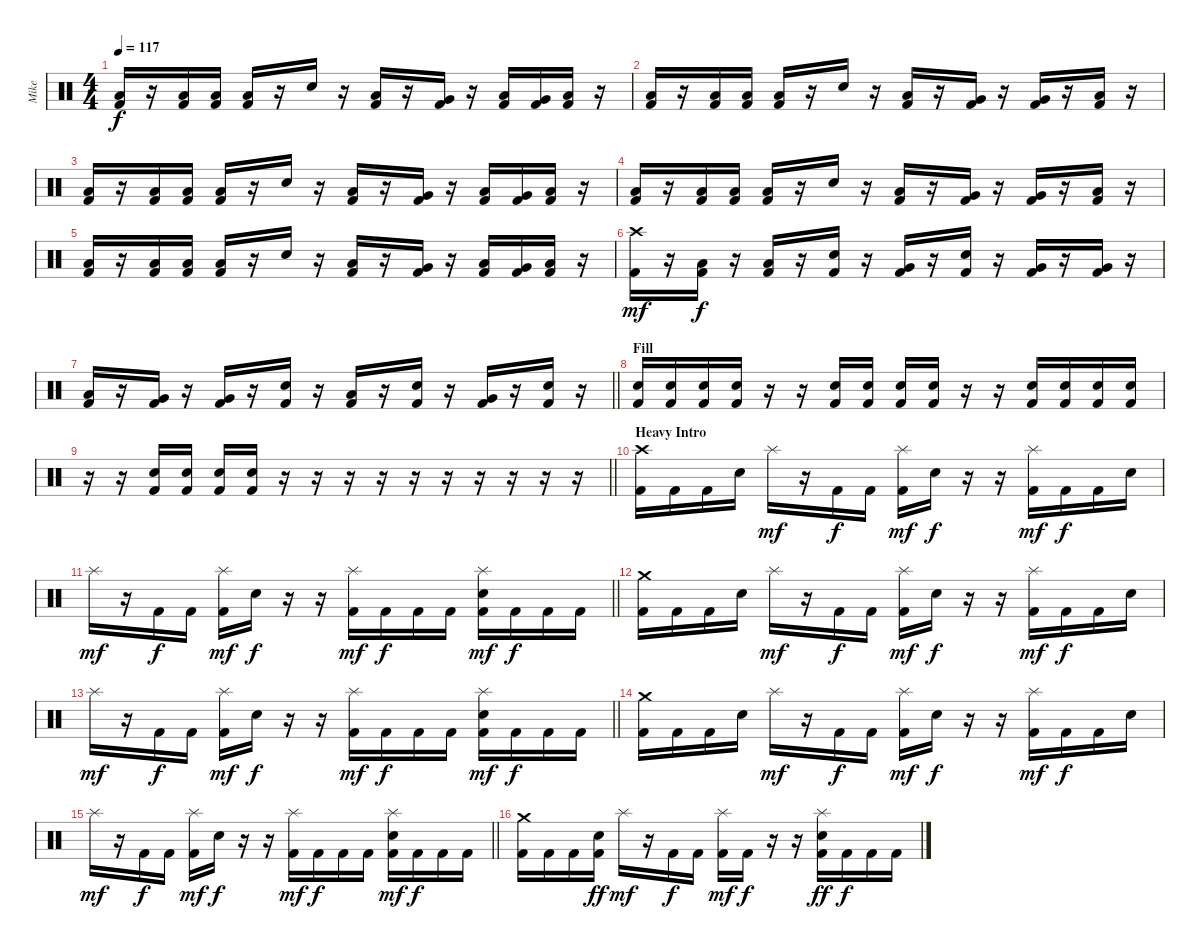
\track ("Mike" "Mike") {instrument percussion}
\staff {score}
\articulation defaults
\ts (4 4)
\tempo 117
\clef neutral
\ks c
("Low Tom (hit)" "Kick (hit) 2").16{dy f} r.16 ("Low Tom (hit)" "Kick (hit) 2").16 ("Low Tom (hit)" "Kick (hit) 2").16 ("Low Tom (hit)" "Kick (hit) 2").16 r.16 "Snare (hit) 2".16 r.16 ("Low Tom (hit)" "Kick (hit) 2").16 r.16 ("Very Low Tom (hit)" "Kick (hit) 2").16 r.16 ("Low Tom (hit)" "Kick (hit) 2").16 ("Very Low Tom (hit)" "Kick (hit) 2").16 ("Low Floor Tom (hit)" "Kick (hit) 2").16 r.16 |
("Low Tom (hit)" "Kick (hit) 2").16 r.16 ("Low Tom (hit)" "Kick (hit) 2").16 ("Low Tom (hit)" "Kick (hit) 2").16 ("Low Tom (hit)" "Kick (hit) 2").16 r.16 "Snare (hit) 2".16 r.16 ("Low Tom (hit)" "Kick (hit) 2").16 r.16 ("Very Low Tom (hit)" "Kick (hit) 2").16 r.16 ("Very Low Tom (hit)" "Kick (hit) 2").16 r.16 ("Low Tom (hit)" "Kick (hit) 2").16 r.16 |
("Low Tom (hit)" "Kick (hit) 2").16 r.16 ("Low Tom (hit)" "Kick (hit) 2").16 ("Low Tom (hit)" "Kick (hit) 2").16 ("Low Tom (hit)" "Kick (hit) 2").16 r.16 "Snare (hit) 2".16 r.16 ("Low Tom (hit)" "Kick (hit) 2").16 r.16 ("Very Low Tom (hit)" "Kick (hit) 2").16 r.16 ("Low Tom (hit)" "Kick (hit) 2").16 ("Very Low Tom (hit)" "Kick (hit) 2").16 ("Low Floor Tom (hit)" "Kick (hit) 2").16 r.16 |
("Low Tom (hit)" "Kick (hit) 2").16 r.16 ("Low Tom (hit)" "Kick (hit) 2").16 ("Low Tom (hit)" "Kick (hit) 2").16 ("Low Tom (hit)" "Kick (hit) 2").16 r.16 "Snare (hit) 2".16 r.16 ("Low Tom (hit)" "Kick (hit) 2").16 r.16 ("Very Low Tom (hit)" "Kick (hit) 2").16 r.16 ("Very Low Tom (hit)" "Kick (hit) 2").16 r.16 ("Low Tom (hit)" "Kick (hit) 2").16 r.16 |
("Low Tom (hit)" "Kick (hit) 2").16 r.16 ("Low Tom (hit)" "Kick (hit) 2").16 ("Low Tom (hit)" "Kick (hit) 2").16 ("Low Tom (hit)" "Kick (hit) 2").16 r.16 "Snare (hit) 2".16 r.16 ("Low Tom (hit)" "Kick (hit) 2").16 r.16 ("Very Low Tom (hit)" "Kick (hit) 2").16 r.16 ("Low Tom (hit)" "Kick (hit) 2").16 ("Very Low Tom (hit)" "Kick (hit) 2").16 ("Low Floor Tom (hit)" "Kick (hit) 2").16 r.16 |
("Crash high (hit)" "Kick (hit) 2").16{dy mf} r.16 ("Low Tom (hit)" "Kick (hit) 2").16{dy f} r.16 ("Low Tom (hit)" "Kick (hit) 2").16 r.16 ("Snare (hit) 2" "Kick (hit) 2").16 r.16 ("Very Low Tom (hit)" "Kick (hit) 2").16 r.16 ("Snare (hit) 2" "Kick (hit) 2").16 r.16 ("Very Low Tom (hit)" "Kick (hit) 2").16 r.16 ("Very Low Tom (hit)" "Kick (hit) 2").16 r.16 |
\barLineRight lightlight
("Low Tom (hit)" "Kick (hit) 2").16 r.16 ("Very Low Tom (hit)" "Kick (hit) 2").16 r.16 ("Very Low Tom (hit)" "Kick (hit) 2").16 r.16 ("Snare (hit) 2" "Kick (hit) 2").16 r.16 ("Low Tom (hit)" "Kick (hit) 2").16 r.16 ("Snare (hit) 2" "Kick (hit) 2").16 r.16 ("Very Low Tom (hit)" "Kick (hit) 2").16 r.16 ("Snare (hit) 2" "Kick (hit) 2").16 r.16 |
\section ("" "Fill")
("Snare (hit) 2" "Kick (hit) 2").16 ("Snare (hit) 2" "Kick (hit) 2").16 ("Snare (hit) 2" "Kick (hit) 2").16 ("Snare (hit) 2" "Kick (hit) 2").16 r.16 r.16 ("Snare (hit) 2" "Kick (hit) 2").16 ("Snare (hit) 2" "Kick (hit) 2").16 ("Snare (hit) 2" "Kick (hit) 2").16 ("Snare (hit) 2" "Kick (hit) 2").16 r.16 r.16 ("Snare (hit) 2" "Kick (hit) 2").16 ("Snare (hit) 2" "Kick (hit) 2").16 ("Snare (hit) 2" "Kick (hit) 2").16 ("Snare (hit) 2" "Kick (hit) 2").16 |
\barLineRight lightlight
r.16 r.16 ("Snare (hit) 2" "Kick (hit) 2").16 ("Snare (hit) 2" "Kick (hit) 2").16 ("Snare (hit) 2" "Kick (hit) 2").16 ("Snare (hit) 2" "Kick (hit) 2").16 r.16 r.16 r.16 r.16 r.16 r.16 r.16 r.16 r.16 r.16 |
\section ("" "Heavy Intro")
("Crash high (hit)" "Kick (hit) 2").16 "Kick (hit) 2".16 "Kick (hit) 2".16 "Snare (hit) 2".16 "Splash (hit)".16{dy mf} r.16 "Kick (hit) 2".16{dy f} "Kick (hit) 2".16 ("Splash (hit)" "Kick (hit) 2").16{dy mf} "Snare (hit) 2".16{dy f} r.16 r.16 ("Splash (hit)" "Kick (hit) 2").16{dy mf} "Kick (hit) 2".16{dy f} "Kick (hit) 2".16 "Snare (hit) 2".16 |
\barLineRight lightlight "Splash (hit)".16{dy mf}
r.16 "Kick (hit) 2".16{dy f} "Kick (hit) 2".16 ("Splash (hit)" "Kick (hit) 2").16{dy mf} "Snare (hit) 2".16{dy f} r.16 r.16 ("Splash (hit)" "Kick (hit) 2").16{dy mf} "Kick (hit) 2".16{dy f} "Kick (hit) 2".16 "Kick (hit) 2".16 ("Splash (hit)" "Snare (hit) 2" "Kick (hit) 2").16{dy mf} "Kick (hit) 2".16{dy f} "Kick (hit) 2".16 "Kick (hit) 2".16 |
("Crash medium (hit)" "Kick (hit) 2").16 "Kick (hit) 2".16 "Kick (hit) 2".16 "Snare (hit) 2".16 "Splash (hit)".16{dy mf} r.16 "Kick (hit) 2".16{dy f} "Kick (hit) 2".16 ("Splash (hit)" "Kick (hit) 2").16{dy mf} "Snare (hit) 2".16{dy f} r.16 r.16 ("Splash (hit)" "Kick (hit) 2").16{dy mf} "Kick (hit) 2".16{dy f} "Kick (hit) 2".16 "Snare (hit) 2".16 |
\barLineRight lightlight "Splash (hit)".16{dy mf}
r.16 "Kick (hit) 2".16{dy f} "Kick (hit) 2".16 ("Splash (hit)" "Kick (hit) 2").16{dy mf} "Snare (hit) 2".16{dy f} r.16 r.16 ("Splash (hit)" "Kick (hit) 2").16{dy mf} "Kick (hit) 2".16{dy f} "Kick (hit) 2".16 "Kick (hit) 2".16 ("Splash (hit)" "Snare (hit) 2" "Kick (hit) 2").16{dy mf} "Kick (hit) 2".16{dy f} "Kick (hit) 2".16 "Kick (hit) 2".16 |
("Crash medium (hit)" "Kick (hit) 2").16 "Kick (hit) 2".16 "Kick (hit) 2".16 "Snare (hit) 2".16 "Splash (hit)".16{dy mf} r.16 "Kick (hit) 2".16{dy f} "Kick (hit) 2".16 ("Splash (hit)" "Kick (hit) 2").16{dy mf} "Snare (hit) 2".16{dy f} r.16 r.16 ("Splash (hit)" "Kick (hit) 2").16{dy mf} "Kick (hit) 2".16{dy f} "Kick (hit) 2".16 "Snare (hit) 2".16 |
\barLineRight lightlight "Splash (hit)".16{dy mf}
r.16 "Kick (hit) 2".16{dy f} "Kick (hit) 2".16 ("Splash (hit)" "Kick (hit) 2").16{dy mf} "Snare (hit) 2".16{dy f} r.16 r.16 ("Splash (hit)" "Kick (hit) 2").16{dy mf} "Kick (hit) 2".16{dy f} "Kick (hit) 2".16 "Kick (hit) 2".16 ("Splash (hit)" "Snare (hit) 2" "Kick (hit) 2").16{dy mf} "Kick (hit) 2".16{dy f} "Kick (hit) 2".16 "Kick (hit) 2".16 |
("Crash medium (hit)" "Kick (hit) 2").16 "Kick (hit) 2".16 "Kick (hit) 2".16 ("Snare (hit) 2" "Kick (hit) 2").16{dy ff} "Splash (hit)".16{dy mf} r.16 "Kick (hit) 2".16{dy f} "Kick (hit) 2".16 ("Splash (hit)" "Kick (hit) 2").16{dy mf} "Kick (hit) 2".16{dy f} r.16 r.16 ("Splash (hit)" "Snare (hit) 2" "Kick (hit) 2").16{dy ff} "Kick (hit) 2".16{dy f} "Kick (hit) 2".16 "Kick (hit) 2".16
